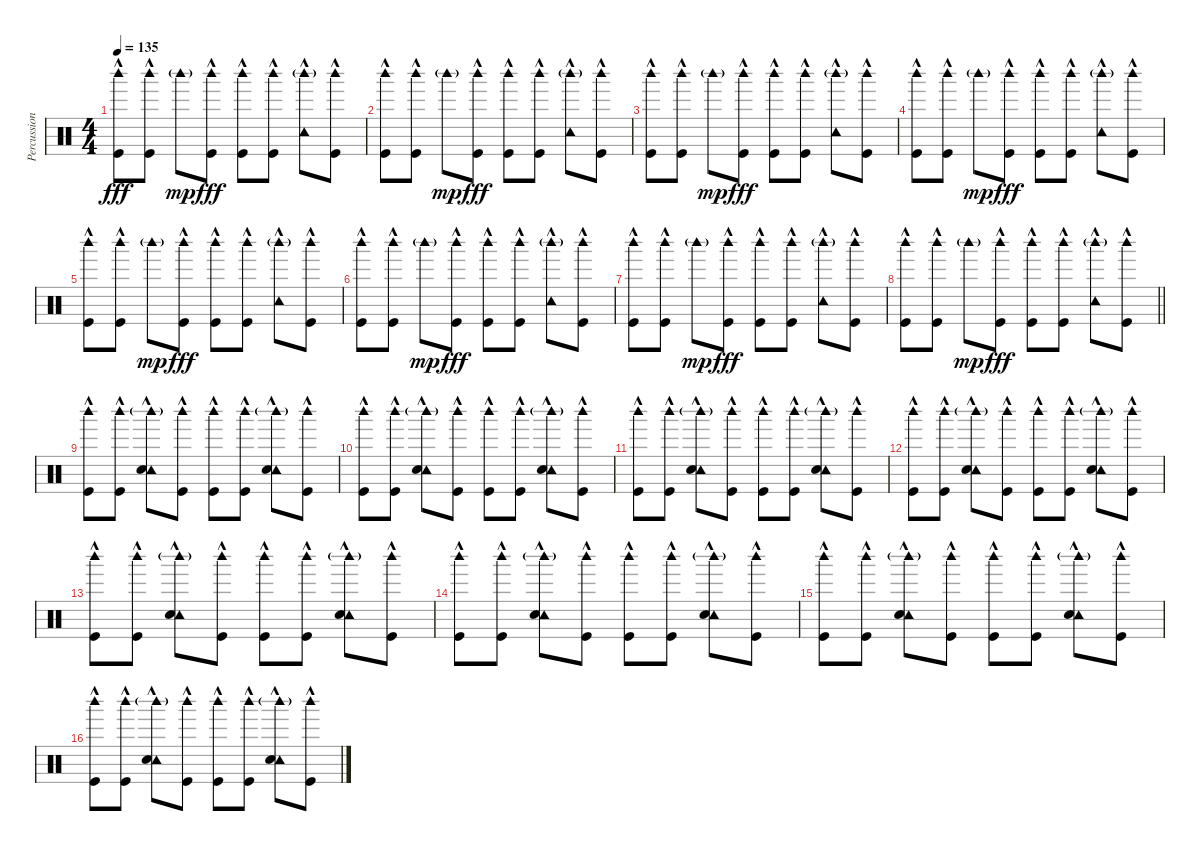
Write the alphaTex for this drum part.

\track ("Percussions" "Percussion") {instrument percussion}
\staff {score}
\articulation defaults
\ts (4 4)
\tempo 135
\clef neutral
\ks c
("Woodblock high (hit)" "Kick (hit)"{hac}).8{dy fff} ("Woodblock high (hit)" "Kick (hit)"{hac}).8 "Woodblock high (hit)"{g}.8{dy mp} ("Woodblock high (hit)" "Kick (hit)"{hac}).8{dy fff} ("Woodblock high (hit)" "Kick (hit)"{hac}).8 ("Woodblock high (hit)" "Kick (hit)"{hac}).8 ("Woodblock high (hit)"{g} "Tambourine (hit)"{hac}).8 ("Woodblock high (hit)" "Kick (hit)"{hac}).8 |
("Woodblock high (hit)" "Kick (hit)"{hac}).8 ("Woodblock high (hit)" "Kick (hit)"{hac}).8 "Woodblock high (hit)"{g}.8{dy mp} ("Woodblock high (hit)" "Kick (hit)"{hac}).8{dy fff} ("Woodblock high (hit)" "Kick (hit)"{hac}).8 ("Woodblock high (hit)" "Kick (hit)"{hac}).8 ("Woodblock high (hit)"{g} "Tambourine (hit)"{hac}).8 ("Woodblock high (hit)" "Kick (hit)"{hac}).8 |
("Woodblock high (hit)" "Kick (hit)"{hac}).8 ("Woodblock high (hit)" "Kick (hit)"{hac}).8 "Woodblock high (hit)"{g}.8{dy mp} ("Woodblock high (hit)" "Kick (hit)"{hac}).8{dy fff} ("Woodblock high (hit)" "Kick (hit)"{hac}).8 ("Woodblock high (hit)" "Kick (hit)"{hac}).8 ("Woodblock high (hit)"{g} "Tambourine (hit)"{hac}).8 ("Woodblock high (hit)" "Kick (hit)"{hac}).8 |
("Woodblock high (hit)" "Kick (hit)"{hac}).8 ("Woodblock high (hit)" "Kick (hit)"{hac}).8 "Woodblock high (hit)"{g}.8{dy mp} ("Woodblock high (hit)" "Kick (hit)"{hac}).8{dy fff} ("Woodblock high (hit)" "Kick (hit)"{hac}).8 ("Woodblock high (hit)" "Kick (hit)"{hac}).8 ("Woodblock high (hit)"{g} "Tambourine (hit)"{hac}).8 ("Woodblock high (hit)" "Kick (hit)"{hac}).8 |
("Woodblock high (hit)" "Kick (hit)"{hac}).8 ("Woodblock high (hit)" "Kick (hit)"{hac}).8 "Woodblock high (hit)"{g}.8{dy mp} ("Woodblock high (hit)" "Kick (hit)"{hac}).8{dy fff} ("Woodblock high (hit)" "Kick (hit)"{hac}).8 ("Woodblock high (hit)" "Kick (hit)"{hac}).8 ("Woodblock high (hit)"{g} "Tambourine (hit)"{hac}).8 ("Woodblock high (hit)" "Kick (hit)"{hac}).8 |
("Woodblock high (hit)" "Kick (hit)"{hac}).8 ("Woodblock high (hit)" "Kick (hit)"{hac}).8 "Woodblock high (hit)"{g}.8{dy mp} ("Woodblock high (hit)" "Kick (hit)"{hac}).8{dy fff} ("Woodblock high (hit)" "Kick (hit)"{hac}).8 ("Woodblock high (hit)" "Kick (hit)"{hac}).8 ("Woodblock high (hit)"{g} "Tambourine (hit)"{hac}).8 ("Woodblock high (hit)" "Kick (hit)"{hac}).8 |
("Woodblock high (hit)" "Kick (hit)"{hac}).8 ("Woodblock high (hit)" "Kick (hit)"{hac}).8 "Woodblock high (hit)"{g}.8{dy mp} ("Woodblock high (hit)" "Kick (hit)"{hac}).8{dy fff} ("Woodblock high (hit)" "Kick (hit)"{hac}).8 ("Woodblock high (hit)" "Kick (hit)"{hac}).8 ("Woodblock high (hit)"{g} "Tambourine (hit)"{hac}).8 ("Woodblock high (hit)" "Kick (hit)"{hac}).8 |
\barLineRight lightlight
("Woodblock high (hit)" "Kick (hit)"{hac}).8 ("Woodblock high (hit)" "Kick (hit)"{hac}).8 "Woodblock high (hit)"{g}.8{dy mp} ("Woodblock high (hit)" "Kick (hit)"{hac}).8{dy fff} ("Woodblock high (hit)" "Kick (hit)"{hac}).8 ("Woodblock high (hit)" "Kick (hit)"{hac}).8 ("Woodblock high (hit)"{g} "Tambourine (hit)"{hac}).8 ("Woodblock high (hit)" "Kick (hit)"{hac}).8 |
("Woodblock high (hit)" "Kick (hit)"{hac}).8 ("Woodblock high (hit)" "Kick (hit)"{hac}).8 ("Woodblock high (hit)"{g} "Tambourine (hit)"{hac} "Electric Snare (hit)"{hac}).8 ("Woodblock high (hit)" "Kick (hit)"{hac}).8 ("Woodblock high (hit)" "Kick (hit)"{hac}).8 ("Woodblock high (hit)" "Kick (hit)"{hac}).8 ("Woodblock high (hit)"{g} "Tambourine (hit)"{hac} "Electric Snare (hit)"{hac}).8 ("Woodblock high (hit)" "Kick (hit)"{hac}).8 |
("Woodblock high (hit)" "Kick (hit)"{hac}).8 ("Woodblock high (hit)" "Kick (hit)"{hac}).8 ("Woodblock high (hit)"{g} "Tambourine (hit)"{hac} "Electric Snare (hit)"{hac}).8 ("Woodblock high (hit)" "Kick (hit)"{hac}).8 ("Woodblock high (hit)" "Kick (hit)"{hac}).8 ("Woodblock high (hit)" "Kick (hit)"{hac}).8 ("Woodblock high (hit)"{g} "Tambourine (hit)"{hac} "Electric Snare (hit)"{hac}).8 ("Woodblock high (hit)" "Kick (hit)"{hac}).8 |
("Woodblock high (hit)" "Kick (hit)"{hac}).8 ("Woodblock high (hit)" "Kick (hit)"{hac}).8 ("Woodblock high (hit)"{g} "Tambourine (hit)"{hac} "Electric Snare (hit)"{hac}).8 ("Woodblock high (hit)" "Kick (hit)"{hac}).8 ("Woodblock high (hit)" "Kick (hit)"{hac}).8 ("Woodblock high (hit)" "Kick (hit)"{hac}).8 ("Woodblock high (hit)"{g} "Tambourine (hit)"{hac} "Electric Snare (hit)"{hac}).8 ("Woodblock high (hit)" "Kick (hit)"{hac}).8 |
("Woodblock high (hit)" "Kick (hit)"{hac}).8 ("Woodblock high (hit)" "Kick (hit)"{hac}).8 ("Woodblock high (hit)"{g} "Tambourine (hit)"{hac} "Electric Snare (hit)"{hac}).8 ("Woodblock high (hit)" "Kick (hit)"{hac}).8 ("Woodblock high (hit)" "Kick (hit)"{hac}).8 ("Woodblock high (hit)" "Kick (hit)"{hac}).8 ("Woodblock high (hit)"{g} "Tambourine (hit)"{hac} "Electric Snare (hit)"{hac}).8 ("Woodblock high (hit)" "Kick (hit)"{hac}).8 |
("Woodblock high (hit)" "Kick (hit)"{hac}).8 ("Woodblock high (hit)" "Kick (hit)"{hac}).8 ("Woodblock high (hit)"{g} "Tambourine (hit)"{hac} "Electric Snare (hit)"{hac}).8 ("Woodblock high (hit)" "Kick (hit)"{hac}).8 ("Woodblock high (hit)" "Kick (hit)"{hac}).8 ("Woodblock high (hit)" "Kick (hit)"{hac}).8 ("Woodblock high (hit)"{g} "Tambourine (hit)"{hac} "Electric Snare (hit)"{hac}).8 ("Woodblock high (hit)" "Kick (hit)"{hac}).8 |
("Woodblock high (hit)" "Kick (hit)"{hac}).8 ("Woodblock high (hit)" "Kick (hit)"{hac}).8 ("Woodblock high (hit)"{g} "Tambourine (hit)"{hac} "Electric Snare (hit)"{hac}).8 ("Woodblock high (hit)" "Kick (hit)"{hac}).8 ("Woodblock high (hit)" "Kick (hit)"{hac}).8 ("Woodblock high (hit)" "Kick (hit)"{hac}).8 ("Woodblock high (hit)"{g} "Tambourine (hit)"{hac} "Electric Snare (hit)"{hac}).8 ("Woodblock high (hit)" "Kick (hit)"{hac}).8 |
("Woodblock high (hit)" "Kick (hit)"{hac}).8 ("Woodblock high (hit)" "Kick (hit)"{hac}).8 ("Woodblock high (hit)"{g} "Tambourine (hit)"{hac} "Electric Snare (hit)"{hac}).8 ("Woodblock high (hit)" "Kick (hit)"{hac}).8 ("Woodblock high (hit)" "Kick (hit)"{hac}).8 ("Woodblock high (hit)" "Kick (hit)"{hac}).8 ("Woodblock high (hit)"{g} "Tambourine (hit)"{hac} "Electric Snare (hit)"{hac}).8 ("Woodblock high (hit)" "Kick (hit)"{hac}).8 |
("Woodblock high (hit)" "Kick (hit)"{hac}).8 ("Woodblock high (hit)" "Kick (hit)"{hac}).8 ("Woodblock high (hit)"{g} "Tambourine (hit)"{hac} "Electric Snare (hit)"{hac}).8 ("Woodblock high (hit)" "Kick (hit)"{hac}).8 ("Woodblock high (hit)" "Kick (hit)"{hac}).8 ("Woodblock high (hit)" "Kick (hit)"{hac}).8 ("Woodblock high (hit)"{g} "Tambourine (hit)"{hac} "Electric Snare (hit)"{hac}).8 ("Woodblock high (hit)" "Kick (hit)"{hac}).8
